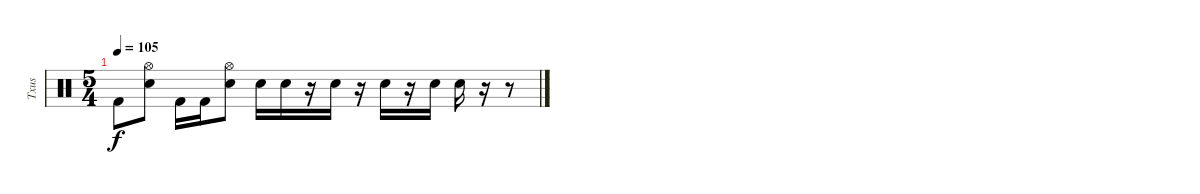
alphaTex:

\track ("Txus" "Txus") {instrument percussion}
\staff {score}
\articulation defaults
\ts (5 4)
\tempo 105
\clef neutral
\ks c "Kick (hit) 2".8{dy f}
("Electric Snare (hit)" "Hi-Hat (open)").8 "Kick (hit) 2".16 "Kick (hit) 2".16 ("Electric Snare (hit)" "Hi-Hat (open)").8 "Electric Snare (hit)".16 "Electric Snare (hit)".16 r.16 "Electric Snare (hit)".16 r.16 "Electric Snare (hit)".16 r.16 "Electric Snare (hit)".16 "Electric Snare (hit)".16 r.16 r.8
